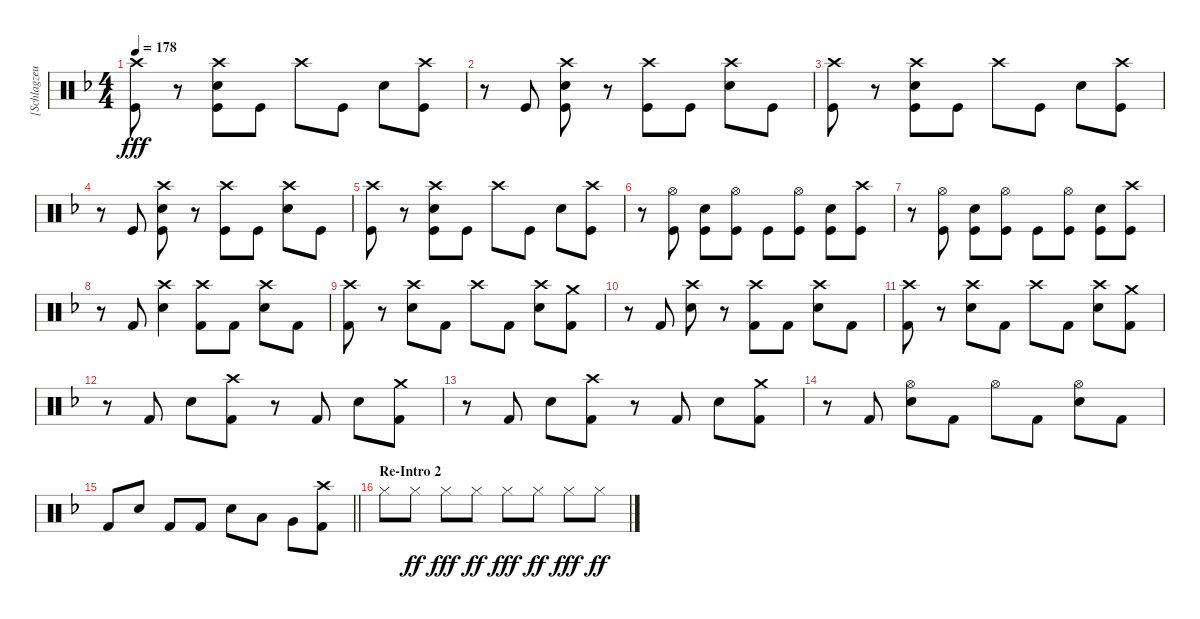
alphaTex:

\track ("[Schlagzeug]" "[Schlagzeu") {instrument percussion}
\staff {score}
\articulation defaults
\ts (4 4)
\tempo 178
\clef neutral
\ks dminor
("Crash high (hit)" "Kick (hit)").8{dy fff} r.8 ("Crash high (hit)" "Electric Snare (hit)" "Kick (hit)").8 "Kick (hit)".8 "Crash high (hit)".8 "Kick (hit)".8 "Electric Snare (hit)".8 ("Kick (hit)" "Crash high (hit)").8 |
r.8 "Kick (hit)".8 ("Crash high (hit)" "Electric Snare (hit)" "Kick (hit)").8 r.8 ("Crash high (hit)" "Kick (hit)").8 "Kick (hit)".8 ("Crash high (hit)" "Electric Snare (hit)").8 "Kick (hit)".8 |
("Crash high (hit)" "Kick (hit)").8 r.8 ("Crash high (hit)" "Electric Snare (hit)" "Kick (hit)").8 "Kick (hit)".8 "Crash high (hit)".8 "Kick (hit)".8 "Electric Snare (hit)".8 ("Kick (hit)" "Crash high (hit)").8 |
r.8 "Kick (hit)".8 ("Crash high (hit)" "Electric Snare (hit)" "Kick (hit)").8 r.8 ("Crash high (hit)" "Kick (hit)").8 "Kick (hit)".8 ("Crash high (hit)" "Electric Snare (hit)").8 "Kick (hit)".8 |
("Crash high (hit)" "Kick (hit)").8 r.8 ("Crash high (hit)" "Electric Snare (hit)" "Kick (hit)").8 "Kick (hit)".8 "Crash high (hit)".8 "Kick (hit)".8 "Electric Snare (hit)".8 ("Kick (hit)" "Crash high (hit)").8 |
r.8 ("Hi-Hat (open)" "Kick (hit)").8 ("Electric Snare (hit)" "Kick (hit)").8 ("Hi-Hat (open)" "Kick (hit)").8 "Kick (hit)".8 ("Hi-Hat (open)" "Kick (hit)").8 ("Electric Snare (hit)" "Kick (hit)").8 ("Crash high (hit)" "Kick (hit)").8 |
r.8 ("Hi-Hat (open)" "Kick (hit)").8 ("Electric Snare (hit)" "Kick (hit)").8 ("Hi-Hat (open)" "Kick (hit)").8 "Kick (hit)".8 ("Hi-Hat (open)" "Kick (hit)").8 ("Electric Snare (hit)" "Kick (hit)").8 ("Crash high (hit)" "Kick (hit)").8 |
r.8 "Kick (hit) 2".8 ("Crash high (hit)" "Electric Snare (hit)").4 ("Crash high (hit)" "Kick (hit) 2").8 "Kick (hit) 2".8 ("Crash high (hit)" "Electric Snare (hit)").8 "Kick (hit) 2".8 |
("Crash high (hit)" "Kick (hit) 2").8 r.8 ("Crash high (hit)" "Electric Snare (hit)").8 "Kick (hit) 2".8 "Crash high (hit)".8 "Kick (hit) 2".8 ("Crash high (hit)" "Electric Snare (hit)").8 ("Crash medium (hit)" "Kick (hit) 2").8 |
r.8 "Kick (hit) 2".8 ("Crash high (hit)" "Electric Snare (hit)").8 r.8 ("Crash high (hit)" "Kick (hit) 2").8 "Kick (hit) 2".8 ("Crash high (hit)" "Electric Snare (hit)").8 "Kick (hit) 2".8 |
("Crash high (hit)" "Kick (hit) 2").8 r.8 ("Crash high (hit)" "Electric Snare (hit)").8 "Kick (hit) 2".8 "Crash high (hit)".8 "Kick (hit) 2".8 ("Crash high (hit)" "Electric Snare (hit)").8 ("Crash medium (hit)" "Kick (hit) 2").8 |
r.8 "Kick (hit) 2".8 "Electric Snare (hit)".8 ("Crash high (hit)" "Kick (hit) 2").8 r.8 "Kick (hit) 2".8 "Electric Snare (hit)".8 ("Crash medium (hit)" "Kick (hit) 2").8 |
r.8 "Kick (hit) 2".8 "Electric Snare (hit)".8 ("Crash high (hit)" "Kick (hit) 2").8 r.8 "Kick (hit) 2".8 "Electric Snare (hit)".8 ("Crash medium (hit)" "Kick (hit) 2").8 |
r.8 "Kick (hit) 2".8 ("Hi-Hat (open)" "Electric Snare (hit)").8 "Kick (hit) 2".8 "Hi-Hat (open)".8 "Kick (hit) 2".8 ("Hi-Hat (open)" "Electric Snare (hit)").8 "Kick (hit) 2".8 |
\barLineRight lightlight "Kick (hit) 2".8 "Electric Snare (hit)".8 "Kick (hit) 2".8 "Kick (hit) 2".8 "Electric Snare (hit)".8 "Low Tom (hit)".8 "Very Low Tom (hit)".8
("Crash high (hit)" "Kick (hit) 2").8 |
\section ("" "Re-Intro 2")
"Hi-Hat (closed)".8 "Hi-Hat (closed)".8{dy ff} "Hi-Hat (closed)".8{dy fff} "Hi-Hat (closed)".8{dy ff} "Hi-Hat (closed)".8{dy fff} "Hi-Hat (closed)".8{dy ff} "Hi-Hat (closed)".8{dy fff} "Hi-Hat (closed)".8{dy ff}
